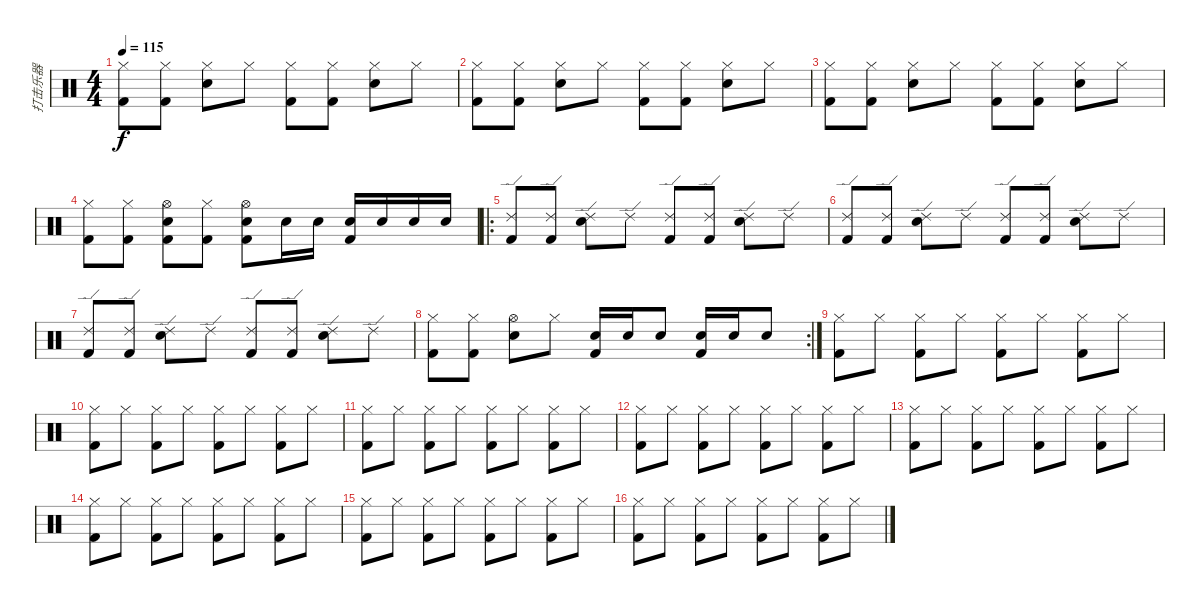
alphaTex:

\track ("打击乐器" "打击乐器") {instrument percussion}
\staff {score}
\articulation defaults
\ts (4 4)
\tempo 115
\clef neutral
\ks c
("Hi-Hat (closed)" "Kick (hit) 2").8{dy f} ("Hi-Hat (closed)" "Kick (hit) 2").8 ("Hi-Hat (closed)" "Electric Snare (hit)").8 "Hi-Hat (closed)".8 ("Hi-Hat (closed)" "Kick (hit) 2").8 ("Hi-Hat (closed)" "Kick (hit) 2").8 ("Hi-Hat (closed)" "Electric Snare (hit)").8 "Hi-Hat (closed)".8 |
("Hi-Hat (closed)" "Kick (hit) 2").8 ("Hi-Hat (closed)" "Kick (hit) 2").8 ("Hi-Hat (closed)" "Electric Snare (hit)").8 "Hi-Hat (closed)".8 ("Hi-Hat (closed)" "Kick (hit) 2").8 ("Hi-Hat (closed)" "Kick (hit) 2").8 ("Hi-Hat (closed)" "Electric Snare (hit)").8 "Hi-Hat (closed)".8 |
("Hi-Hat (closed)" "Kick (hit) 2").8 ("Hi-Hat (closed)" "Kick (hit) 2").8 ("Hi-Hat (closed)" "Electric Snare (hit)").8 "Hi-Hat (closed)".8 ("Hi-Hat (closed)" "Kick (hit) 2").8 ("Hi-Hat (closed)" "Kick (hit) 2").8 ("Hi-Hat (closed)" "Electric Snare (hit)").8 "Hi-Hat (closed)".8 |
("Hi-Hat (closed)" "Kick (hit) 2").8 ("Hi-Hat (closed)" "Kick (hit) 2").8 ("Hi-Hat (open)" "Electric Snare (hit)" "Kick (hit) 2").8 ("Hi-Hat (closed)" "Kick (hit) 2").8 ("Hi-Hat (open)" "Electric Snare (hit)" "Kick (hit) 2").8 "Electric Snare (hit)".16 "Electric Snare (hit)".16 ("Electric Snare (hit)" "Kick (hit) 2").16 "Electric Snare (hit)".16 "Electric Snare (hit)".16 "Electric Snare (hit)".16 |
\ro
("Ride (edge) 2" "Kick (hit) 2").8 ("Ride (edge) 2" "Kick (hit) 2").8 ("Ride (edge) 2" "Electric Snare (hit)").8 "Ride (edge) 2".8 ("Ride (edge) 2" "Kick (hit) 2").8 ("Ride (edge) 2" "Kick (hit) 2").8 ("Ride (edge) 2" "Electric Snare (hit)").8 "Ride (edge) 2".8 |
("Ride (edge) 2" "Kick (hit) 2").8 ("Ride (edge) 2" "Kick (hit) 2").8 ("Ride (edge) 2" "Electric Snare (hit)").8 "Ride (edge) 2".8 ("Ride (edge) 2" "Kick (hit) 2").8 ("Ride (edge) 2" "Kick (hit) 2").8 ("Ride (edge) 2" "Electric Snare (hit)").8 "Ride (edge) 2".8 |
("Ride (edge) 2" "Kick (hit) 2").8 ("Ride (edge) 2" "Kick (hit) 2").8 ("Ride (edge) 2" "Electric Snare (hit)").8 "Ride (edge) 2".8 ("Ride (edge) 2" "Kick (hit) 2").8 ("Ride (edge) 2" "Kick (hit) 2").8 ("Ride (edge) 2" "Electric Snare (hit)").8 "Ride (edge) 2".8 |
\rc 2
("Hi-Hat (closed)" "Kick (hit) 2").8 ("Hi-Hat (closed)" "Kick (hit) 2").8 ("Hi-Hat (open)" "Electric Snare (hit)").8 "Hi-Hat (closed)".8 ("Electric Snare (hit)" "Kick (hit) 2").16 "Electric Snare (hit)".16 "Electric Snare (hit)".8 ("Electric Snare (hit)" "Kick (hit) 2").16 "Electric Snare (hit)".16 "Electric Snare (hit)".8 |
("Hi-Hat (closed)" "Kick (hit) 2").8 "Hi-Hat (closed)".8 ("Hi-Hat (closed)" "Kick (hit) 2").8 "Hi-Hat (closed)".8 ("Hi-Hat (closed)" "Kick (hit) 2").8 "Hi-Hat (closed)".8 ("Hi-Hat (closed)" "Kick (hit) 2").8 "Hi-Hat (closed)".8 |
("Hi-Hat (closed)" "Kick (hit) 2").8 "Hi-Hat (closed)".8 ("Hi-Hat (closed)" "Kick (hit) 2").8 "Hi-Hat (closed)".8 ("Hi-Hat (closed)" "Kick (hit) 2").8 "Hi-Hat (closed)".8 ("Hi-Hat (closed)" "Kick (hit) 2").8 "Hi-Hat (closed)".8 |
("Hi-Hat (closed)" "Kick (hit) 2").8 "Hi-Hat (closed)".8 ("Hi-Hat (closed)" "Kick (hit) 2").8 "Hi-Hat (closed)".8 ("Hi-Hat (closed)" "Kick (hit) 2").8 "Hi-Hat (closed)".8 ("Hi-Hat (closed)" "Kick (hit) 2").8 "Hi-Hat (closed)".8 |
("Hi-Hat (closed)" "Kick (hit) 2").8 "Hi-Hat (closed)".8 ("Hi-Hat (closed)" "Kick (hit) 2").8 "Hi-Hat (closed)".8 ("Hi-Hat (closed)" "Kick (hit) 2").8 "Hi-Hat (closed)".8 ("Hi-Hat (closed)" "Kick (hit) 2").8 "Hi-Hat (closed)".8 |
("Hi-Hat (closed)" "Kick (hit) 2").8 "Hi-Hat (closed)".8 ("Hi-Hat (closed)" "Kick (hit) 2").8 "Hi-Hat (closed)".8 ("Hi-Hat (closed)" "Kick (hit) 2").8 "Hi-Hat (closed)".8 ("Hi-Hat (closed)" "Kick (hit) 2").8 "Hi-Hat (closed)".8 |
("Hi-Hat (closed)" "Kick (hit) 2").8 "Hi-Hat (closed)".8 ("Hi-Hat (closed)" "Kick (hit) 2").8 "Hi-Hat (closed)".8 ("Hi-Hat (closed)" "Kick (hit) 2").8 "Hi-Hat (closed)".8 ("Hi-Hat (closed)" "Kick (hit) 2").8 "Hi-Hat (closed)".8 |
("Hi-Hat (closed)" "Kick (hit) 2").8 "Hi-Hat (closed)".8 ("Hi-Hat (closed)" "Kick (hit) 2").8 "Hi-Hat (closed)".8 ("Hi-Hat (closed)" "Kick (hit) 2").8 "Hi-Hat (closed)".8 ("Hi-Hat (closed)" "Kick (hit) 2").8 "Hi-Hat (closed)".8 |
("Hi-Hat (closed)" "Kick (hit) 2").8 "Hi-Hat (closed)".8 ("Hi-Hat (closed)" "Kick (hit) 2").8 "Hi-Hat (closed)".8 ("Hi-Hat (closed)" "Kick (hit) 2").8 "Hi-Hat (closed)".8 ("Hi-Hat (closed)" "Kick (hit) 2").8 "Hi-Hat (closed)".8
